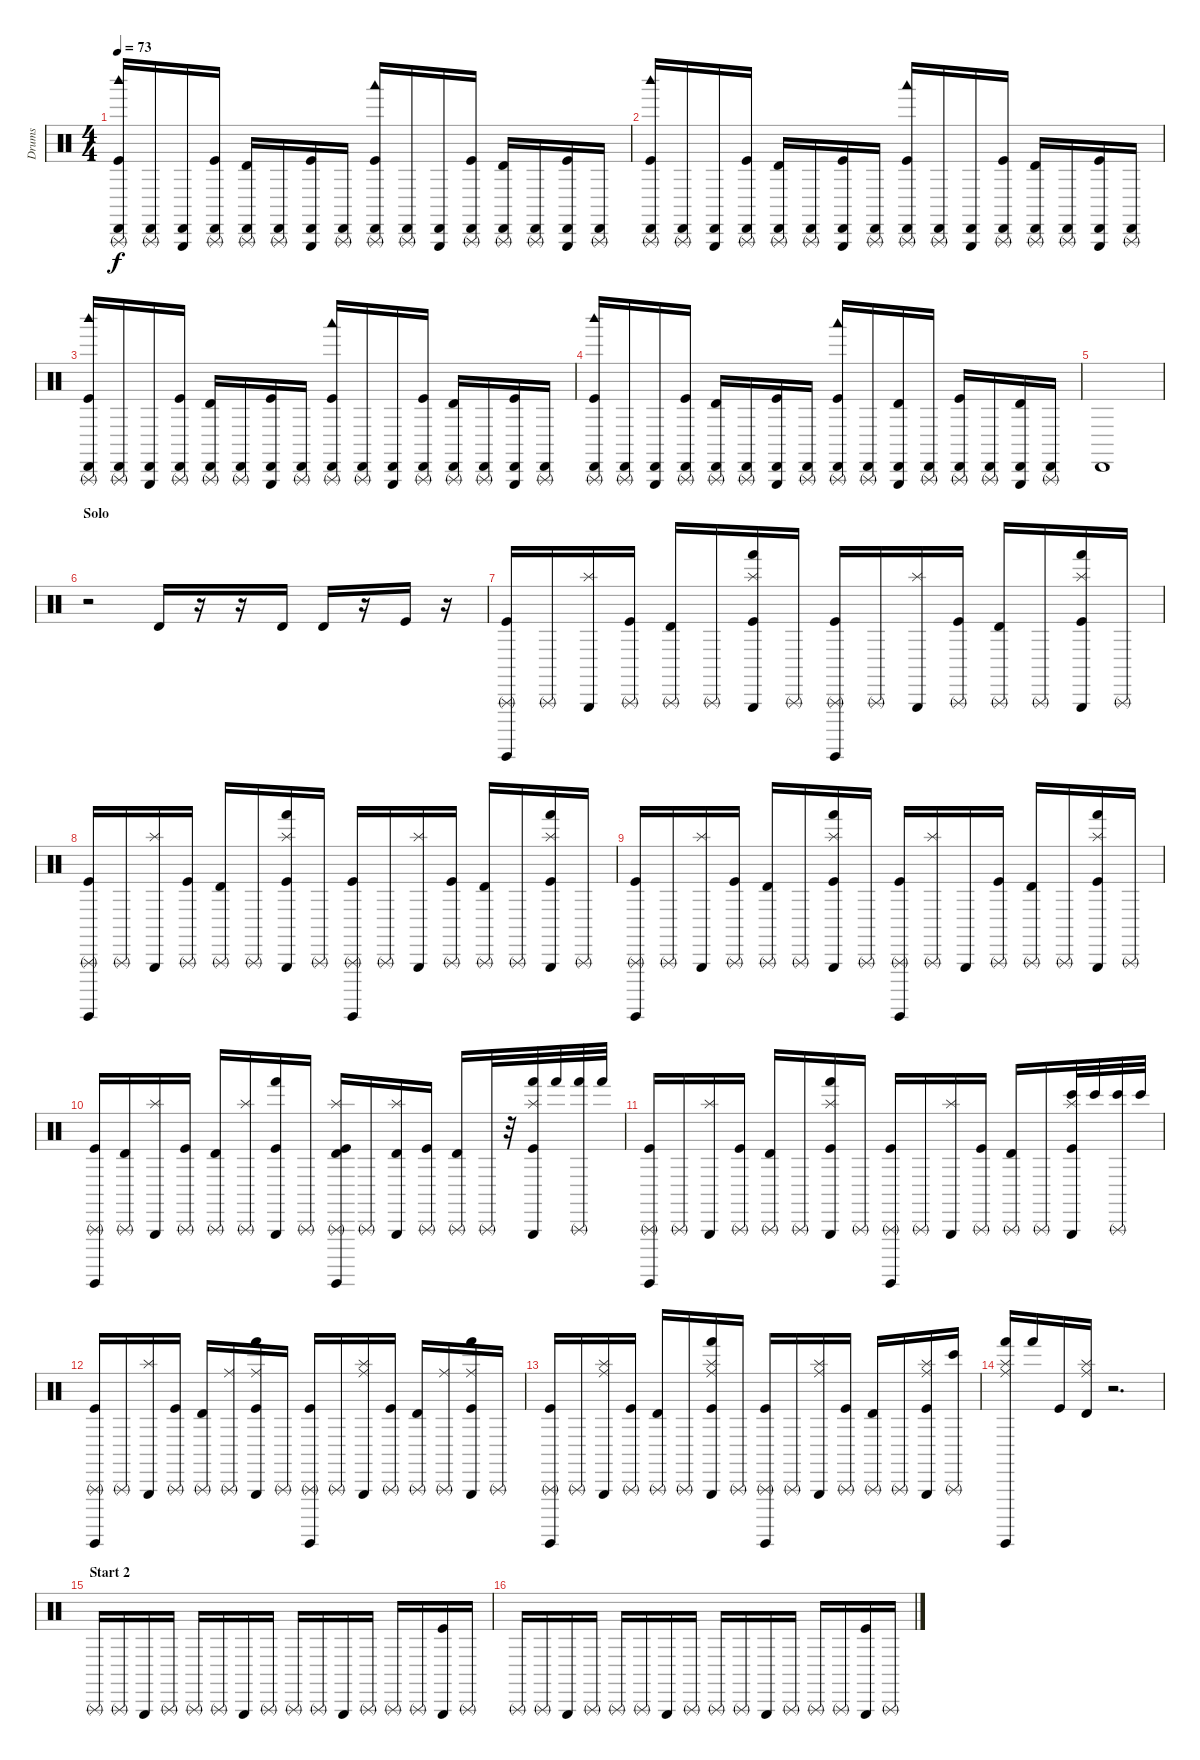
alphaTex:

\track ("Drums" "Drums") {instrument percussion}
\staff {score}
\articulation defaults
\ts (4 4)
\tempo 73
\clef neutral
\ks c
("Woodblock high (hit)" "Cabasa (hit)" "Kick (hit)" "Triangle (rnute)").16{dy f} ("Cabasa (hit)" "Triangle (rnute)").16 ("Cabasa (hit)" "Triangle (hit)").16 ("Cabasa (hit)" "Kick (hit)" "Triangle (rnute)").16 ("Cabasa (hit)" "Timbale high (hit)" "Triangle (rnute)").16 ("Cabasa (hit)" "Triangle (rnute)").16 ("Cabasa (hit)" "Kick (hit)" "Triangle (hit)").16 ("Cabasa (hit)" "Triangle (rnute)").16 ("Woodblock low (hit)" "Cabasa (hit)" "Kick (hit)" "Triangle (rnute)").16 ("Cabasa (hit)" "Triangle (rnute)").16 ("Cabasa (hit)" "Triangle (hit)").16 ("Cabasa (hit)" "Kick (hit)" "Triangle (rnute)").16 ("Cabasa (hit)" "Timbale high (hit)" "Triangle (rnute)").16 ("Cabasa (hit)" "Triangle (rnute)").16 ("Cabasa (hit)" "Kick (hit)" "Triangle (hit)").16 ("Cabasa (hit)" "Triangle (rnute)").16 |
("Woodblock high (hit)" "Cabasa (hit)" "Kick (hit)" "Triangle (rnute)").16 ("Cabasa (hit)" "Triangle (rnute)").16 ("Cabasa (hit)" "Triangle (hit)").16 ("Cabasa (hit)" "Kick (hit)" "Triangle (rnute)").16 ("Cabasa (hit)" "Timbale high (hit)" "Triangle (rnute)").16 ("Cabasa (hit)" "Triangle (rnute)").16 ("Cabasa (hit)" "Kick (hit)" "Triangle (hit)").16 ("Cabasa (hit)" "Triangle (rnute)").16 ("Woodblock low (hit)" "Cabasa (hit)" "Kick (hit)" "Triangle (rnute)").16 ("Cabasa (hit)" "Triangle (rnute)").16 ("Cabasa (hit)" "Triangle (hit)").16 ("Cabasa (hit)" "Kick (hit)" "Triangle (rnute)").16 ("Cabasa (hit)" "Timbale high (hit)" "Triangle (rnute)").16 ("Cabasa (hit)" "Triangle (rnute)").16 ("Cabasa (hit)" "Kick (hit)" "Triangle (hit)").16 ("Cabasa (hit)" "Triangle (rnute)").16 |
("Woodblock high (hit)" "Cabasa (hit)" "Kick (hit)" "Triangle (rnute)").16 ("Cabasa (hit)" "Triangle (rnute)").16 ("Cabasa (hit)" "Triangle (hit)").16 ("Cabasa (hit)" "Kick (hit)" "Triangle (rnute)").16 ("Cabasa (hit)" "Timbale high (hit)" "Triangle (rnute)").16 ("Cabasa (hit)" "Triangle (rnute)").16 ("Cabasa (hit)" "Kick (hit)" "Triangle (hit)").16 ("Cabasa (hit)" "Triangle (rnute)").16 ("Woodblock low (hit)" "Cabasa (hit)" "Kick (hit)" "Triangle (rnute)").16 ("Cabasa (hit)" "Triangle (rnute)").16 ("Cabasa (hit)" "Triangle (hit)").16 ("Cabasa (hit)" "Kick (hit)" "Triangle (rnute)").16 ("Cabasa (hit)" "Timbale high (hit)" "Triangle (rnute)").16 ("Cabasa (hit)" "Triangle (rnute)").16 ("Cabasa (hit)" "Kick (hit)" "Triangle (hit)").16 ("Cabasa (hit)" "Triangle (rnute)").16 |
("Woodblock high (hit)" "Cabasa (hit)" "Kick (hit)" "Triangle (rnute)").16 ("Cabasa (hit)" "Triangle (rnute)").16 ("Cabasa (hit)" "Triangle (hit)").16 ("Cabasa (hit)" "Kick (hit)" "Triangle (rnute)").16 ("Cabasa (hit)" "Timbale high (hit)" "Triangle (rnute)").16 ("Cabasa (hit)" "Triangle (rnute)").16 ("Cabasa (hit)" "Kick (hit)" "Triangle (hit)").16 ("Cabasa (hit)" "Triangle (rnute)").16 ("Woodblock low (hit)" "Cabasa (hit)" "Kick (hit)" "Triangle (rnute)").16 ("Cabasa (hit)" "Triangle (rnute)").16 ("Cabasa (hit)" "Timbale high (hit)" "Triangle (hit)").16 ("Cabasa (hit)" "Triangle (rnute)").16 ("Cabasa (hit)" "Kick (hit)" "Triangle (rnute)").16 ("Cabasa (hit)" "Triangle (rnute)").16 ("Cabasa (hit)" "Timbale high (hit)" "Triangle (hit)").16 ("Cabasa (hit)" "Triangle (rnute)").16 |
"Cabasa (hit)".1 |
\section ("" "Solo")
r.2 "Timbale high (hit)".16 r.16 r.16 "Timbale high (hit)".16 "Timbale high (hit)".16 r.16 "Kick (hit)".16 r.16 |
("Guiro (hit)" "Kick (hit)" "Triangle (rnute)").16 "Triangle (rnute)".16 ("Triangle (hit)" "Splash (hit)").16 ("Kick (hit)" "Triangle (rnute)").16 ("Timbale high (hit)" "Triangle (rnute)").16 "Triangle (rnute)".16 ("Hand (hit)" "Kick (hit)" "Triangle (hit)" "Splash (hit)").16 "Triangle (rnute)".16 ("Guiro (hit)" "Kick (hit)" "Triangle (rnute)").16 "Triangle (rnute)".16 ("Triangle (hit)" "Splash (hit)").16 ("Kick (hit)" "Triangle (rnute)").16 ("Timbale high (hit)" "Triangle (rnute)").16 "Triangle (rnute)".16 ("Hand (hit)" "Kick (hit)" "Triangle (hit)" "Splash (hit)").16 "Triangle (rnute)".16 |
("Guiro (hit)" "Kick (hit)" "Triangle (rnute)").16 "Triangle (rnute)".16 ("Triangle (hit)" "Splash (hit)").16 ("Kick (hit)" "Triangle (rnute)").16 ("Timbale high (hit)" "Triangle (rnute)").16 "Triangle (rnute)".16 ("Hand (hit)" "Kick (hit)" "Triangle (hit)" "Splash (hit)").16 "Triangle (rnute)".16 ("Guiro (hit)" "Kick (hit)" "Triangle (rnute)").16 "Triangle (rnute)".16 ("Triangle (hit)" "Splash (hit)").16 ("Kick (hit)" "Triangle (rnute)").16 ("Timbale high (hit)" "Triangle (rnute)").16 "Triangle (rnute)".16 ("Hand (hit)" "Kick (hit)" "Triangle (hit)" "Splash (hit)").16 "Triangle (rnute)".16 |
("Guiro (hit)" "Kick (hit)" "Triangle (rnute)").16 "Triangle (rnute)".16 ("Triangle (hit)" "Splash (hit)").16 ("Kick (hit)" "Triangle (rnute)").16 ("Timbale high (hit)" "Triangle (rnute)").16 "Triangle (rnute)".16 ("Hand (hit)" "Kick (hit)" "Triangle (hit)" "Splash (hit)").16 "Triangle (rnute)".16 ("Guiro (hit)" "Kick (hit)" "Triangle (rnute)").16 ("Triangle (rnute)" "Splash (hit)").16 "Triangle (hit)".16 ("Kick (hit)" "Triangle (rnute)").16 ("Timbale high (hit)" "Triangle (rnute)").16 "Triangle (rnute)".16 ("Hand (hit)" "Kick (hit)" "Triangle (hit)" "Splash (hit)").16 "Triangle (rnute)".16 |
("Guiro (hit)" "Kick (hit)" "Triangle (rnute)").16 ("Timbale high (hit)" "Triangle (rnute)").16 ("Triangle (hit)" "Splash (hit)").16 ("Kick (hit)" "Triangle (rnute)").16 ("Timbale high (hit)" "Triangle (rnute)").16 ("Triangle (rnute)" "Splash (hit)").16 ("Hand (hit)" "Kick (hit)" "Triangle (hit)").16 "Triangle (rnute)".16 ("Guiro (hit)" "Timbale high (hit)" "Kick (hit)" "Triangle (rnute)" "Splash (hit)").16 "Triangle (rnute)".16 ("Timbale high (hit)" "Triangle (hit)" "Splash (hit)").16 ("Kick (hit)" "Triangle (rnute)").16 ("Timbale high (hit)" "Triangle (rnute)").16 "Triangle (rnute)".32 r.32 ("Hand (hit)" "Kick (hit)" "Triangle (hit)" "Splash (hit)").32 "Hand (hit)".32 ("Hand (hit)" "Triangle (rnute)").32 "Hand (hit)".32 |
("Guiro (hit)" "Kick (hit)" "Triangle (rnute)").16 "Triangle (rnute)".16 ("Triangle (hit)" "Splash (hit)").16 ("Kick (hit)" "Triangle (rnute)").16 ("Timbale high (hit)" "Triangle (rnute)").16 "Triangle (rnute)".16 ("Hand (hit)" "Kick (hit)" "Triangle (hit)" "Splash (hit)").16 "Triangle (rnute)".16 ("Guiro (hit)" "Kick (hit)" "Triangle (rnute)").16 "Triangle (rnute)".16 ("Triangle (hit)" "Splash (hit)").16 ("Kick (hit)" "Triangle (rnute)").16 ("Timbale high (hit)" "Triangle (rnute)").16 "Triangle (rnute)".16 ("Bongo High (hit)" "Kick (hit)" "Triangle (hit)" "Splash (hit)").32 "Bongo High (hit)".32 ("Bongo High (hit)" "Triangle (rnute)").32 "Bongo High (hit)".32 |
("Guiro (hit)" "Kick (hit)" "Triangle (rnute)").16 "Triangle (rnute)".16 ("Triangle (hit)" "Splash (hit)").16 ("Kick (hit)" "Triangle (rnute)").16 ("Timbale high (hit)" "Triangle (rnute)").16 ("Triangle (rnute)" "Ride (middle)").16 ("Hand (hit)" "Kick (hit)" "Triangle (hit)" "Ride (middle)").16 "Triangle (rnute)".16 ("Guiro (hit)" "Kick (hit)" "Triangle (rnute)").16 "Triangle (rnute)".16 ("Triangle (hit)" "Splash (hit)" "Ride (middle)").16 ("Kick (hit)" "Triangle (rnute)").16 ("Timbale high (hit)" "Triangle (rnute)").16 ("Triangle (rnute)" "Ride (middle)").16 ("Hand (hit)" "Kick (hit)" "Triangle (hit)" "Ride (middle)").16 "Triangle (rnute)".16 |
("Guiro (hit)" "Kick (hit)" "Triangle (rnute)").16 "Triangle (rnute)".16 ("Triangle (hit)" "Splash (hit)" "Ride (middle)").16 ("Kick (hit)" "Triangle (rnute)").16 ("Timbale high (hit)" "Triangle (rnute)").16 "Triangle (rnute)".16 ("Hand (hit)" "Kick (hit)" "Triangle (hit)" "Splash (hit)" "Ride (middle)").16 "Triangle (rnute)".16 ("Guiro (hit)" "Kick (hit)" "Triangle (rnute)").16 "Triangle (rnute)".16 ("Triangle (hit)" "Splash (hit)" "Ride (middle)").16 ("Kick (hit)" "Triangle (rnute)").16 ("Timbale high (hit)" "Triangle (rnute)").16 "Triangle (rnute)".16 ("Kick (hit)" "Triangle (hit)" "Splash (hit)" "Ride (middle)").16 ("Bongo High (hit)" "Triangle (rnute)").16 |
("Guiro (hit)" "Hand (hit)" "Splash (hit)" "Ride (middle)").16 "Hand (hit)".16 "Kick (hit)".16 ("Timbale high (hit)" "Splash (hit)" "Ride (middle)").16 r.2{d} |
\section ("" "Start 2")
"Triangle (rnute)".16 "Triangle (rnute)".16 "Triangle (hit)".16 "Triangle (rnute)".16 "Triangle (rnute)".16 "Triangle (rnute)".16 "Triangle (hit)".16 "Triangle (rnute)".16 "Triangle (rnute)".16 "Triangle (rnute)".16 "Triangle (hit)".16 "Triangle (rnute)".16 "Triangle (rnute)".16 "Triangle (rnute)".16 ("Kick (hit)" "Triangle (hit)").16 "Triangle (rnute)".16 |
"Triangle (rnute)".16 "Triangle (rnute)".16 "Triangle (hit)".16 "Triangle (rnute)".16 "Triangle (rnute)".16 "Triangle (rnute)".16 "Triangle (hit)".16 "Triangle (rnute)".16 "Triangle (rnute)".16 "Triangle (rnute)".16 "Triangle (hit)".16 "Triangle (rnute)".16 "Triangle (rnute)".16 "Triangle (rnute)".16 ("Kick (hit)" "Triangle (hit)").16 "Triangle (rnute)".16
